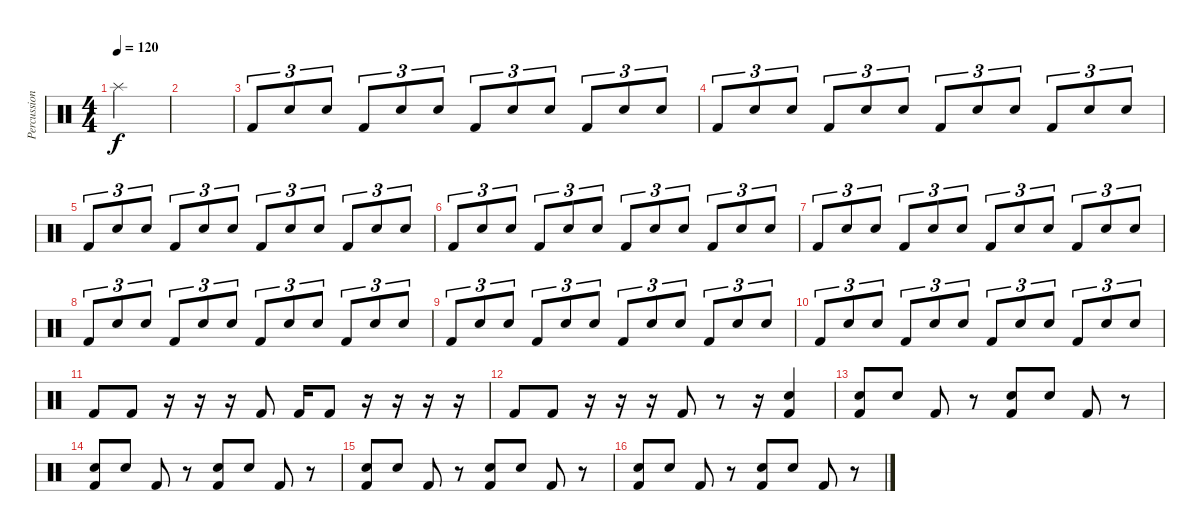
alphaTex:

\track ("Percussion" "Percussion") {instrument percussion}
\staff {score}
\articulation defaults
\ts (4 4)
\tempo 120
\clef neutral
\ks c "Splash (hit)".4{dy f}
|
|
"Kick (hit) 2".8{tu (3 2)} "Electric Snare (hit)".8{tu (3 2)} "Electric Snare (hit)".8{tu (3 2)} "Kick (hit) 2".8{tu (3 2)} "Electric Snare (hit)".8{tu (3 2)} "Electric Snare (hit)".8{tu (3 2)} "Kick (hit) 2".8{tu (3 2)} "Electric Snare (hit)".8{tu (3 2)} "Electric Snare (hit)".8{tu (3 2)} "Kick (hit) 2".8{tu (3 2)} "Electric Snare (hit)".8{tu (3 2)} "Electric Snare (hit)".8{tu (3 2)} |
"Kick (hit) 2".8{tu (3 2)} "Electric Snare (hit)".8{tu (3 2)} "Electric Snare (hit)".8{tu (3 2)} "Kick (hit) 2".8{tu (3 2)} "Electric Snare (hit)".8{tu (3 2)} "Electric Snare (hit)".8{tu (3 2)} "Kick (hit) 2".8{tu (3 2)} "Electric Snare (hit)".8{tu (3 2)} "Electric Snare (hit)".8{tu (3 2)} "Kick (hit) 2".8{tu (3 2)} "Electric Snare (hit)".8{tu (3 2)} "Electric Snare (hit)".8{tu (3 2)} |
"Kick (hit) 2".8{tu (3 2)} "Electric Snare (hit)".8{tu (3 2)} "Electric Snare (hit)".8{tu (3 2)} "Kick (hit) 2".8{tu (3 2)} "Electric Snare (hit)".8{tu (3 2)} "Electric Snare (hit)".8{tu (3 2)} "Kick (hit) 2".8{tu (3 2)} "Electric Snare (hit)".8{tu (3 2)} "Electric Snare (hit)".8{tu (3 2)} "Kick (hit) 2".8{tu (3 2)} "Electric Snare (hit)".8{tu (3 2)} "Electric Snare (hit)".8{tu (3 2)} |
"Kick (hit) 2".8{tu (3 2)} "Electric Snare (hit)".8{tu (3 2)} "Electric Snare (hit)".8{tu (3 2)} "Kick (hit) 2".8{tu (3 2)} "Electric Snare (hit)".8{tu (3 2)} "Electric Snare (hit)".8{tu (3 2)} "Kick (hit) 2".8{tu (3 2)} "Electric Snare (hit)".8{tu (3 2)} "Electric Snare (hit)".8{tu (3 2)} "Kick (hit) 2".8{tu (3 2)} "Electric Snare (hit)".8{tu (3 2)} "Electric Snare (hit)".8{tu (3 2)} |
"Kick (hit) 2".8{tu (3 2)} "Electric Snare (hit)".8{tu (3 2)} "Electric Snare (hit)".8{tu (3 2)} "Kick (hit) 2".8{tu (3 2)} "Electric Snare (hit)".8{tu (3 2)} "Electric Snare (hit)".8{tu (3 2)} "Kick (hit) 2".8{tu (3 2)} "Electric Snare (hit)".8{tu (3 2)} "Electric Snare (hit)".8{tu (3 2)} "Kick (hit) 2".8{tu (3 2)} "Electric Snare (hit)".8{tu (3 2)} "Electric Snare (hit)".8{tu (3 2)} |
"Kick (hit) 2".8{tu (3 2)} "Electric Snare (hit)".8{tu (3 2)} "Electric Snare (hit)".8{tu (3 2)} "Kick (hit) 2".8{tu (3 2)} "Electric Snare (hit)".8{tu (3 2)} "Electric Snare (hit)".8{tu (3 2)} "Kick (hit) 2".8{tu (3 2)} "Electric Snare (hit)".8{tu (3 2)} "Electric Snare (hit)".8{tu (3 2)} "Kick (hit) 2".8{tu (3 2)} "Electric Snare (hit)".8{tu (3 2)} "Electric Snare (hit)".8{tu (3 2)} |
"Kick (hit) 2".8{tu (3 2)} "Electric Snare (hit)".8{tu (3 2)} "Electric Snare (hit)".8{tu (3 2)} "Kick (hit) 2".8{tu (3 2)} "Electric Snare (hit)".8{tu (3 2)} "Electric Snare (hit)".8{tu (3 2)} "Kick (hit) 2".8{tu (3 2)} "Electric Snare (hit)".8{tu (3 2)} "Electric Snare (hit)".8{tu (3 2)} "Kick (hit) 2".8{tu (3 2)} "Electric Snare (hit)".8{tu (3 2)} "Electric Snare (hit)".8{tu (3 2)} |
"Kick (hit) 2".8{tu (3 2)} "Electric Snare (hit)".8{tu (3 2)} "Electric Snare (hit)".8{tu (3 2)} "Kick (hit) 2".8{tu (3 2)} "Electric Snare (hit)".8{tu (3 2)} "Electric Snare (hit)".8{tu (3 2)} "Kick (hit) 2".8{tu (3 2)} "Electric Snare (hit)".8{tu (3 2)} "Electric Snare (hit)".8{tu (3 2)} "Kick (hit) 2".8{tu (3 2)} "Electric Snare (hit)".8{tu (3 2)} "Electric Snare (hit)".8{tu (3 2)} |
"Kick (hit) 2".8 "Kick (hit) 2".8 r.16 r.16 r.16 "Kick (hit) 2".8 "Kick (hit) 2".16 "Kick (hit) 2".8 r.16 r.16 r.16 r.16 |
"Kick (hit) 2".8 "Kick (hit) 2".8 r.16 r.16 r.16 "Kick (hit) 2".8 r.8 r.16 ("Electric Snare (hit)" "Kick (hit) 2").4 |
("Electric Snare (hit)" "Kick (hit) 2").8 "Electric Snare (hit)".8 "Kick (hit) 2".8 r.8 ("Electric Snare (hit)" "Kick (hit) 2").8 "Electric Snare (hit)".8 "Kick (hit) 2".8 r.8 |
("Electric Snare (hit)" "Kick (hit) 2").8 "Electric Snare (hit)".8 "Kick (hit) 2".8 r.8 ("Electric Snare (hit)" "Kick (hit) 2").8 "Electric Snare (hit)".8 "Kick (hit) 2".8 r.8 |
("Electric Snare (hit)" "Kick (hit) 2").8 "Electric Snare (hit)".8 "Kick (hit) 2".8 r.8 ("Electric Snare (hit)" "Kick (hit) 2").8 "Electric Snare (hit)".8 "Kick (hit) 2".8 r.8 |
("Electric Snare (hit)" "Kick (hit) 2").8 "Electric Snare (hit)".8 "Kick (hit) 2".8 r.8 ("Electric Snare (hit)" "Kick (hit) 2").8 "Electric Snare (hit)".8 "Kick (hit) 2".8 r.8
